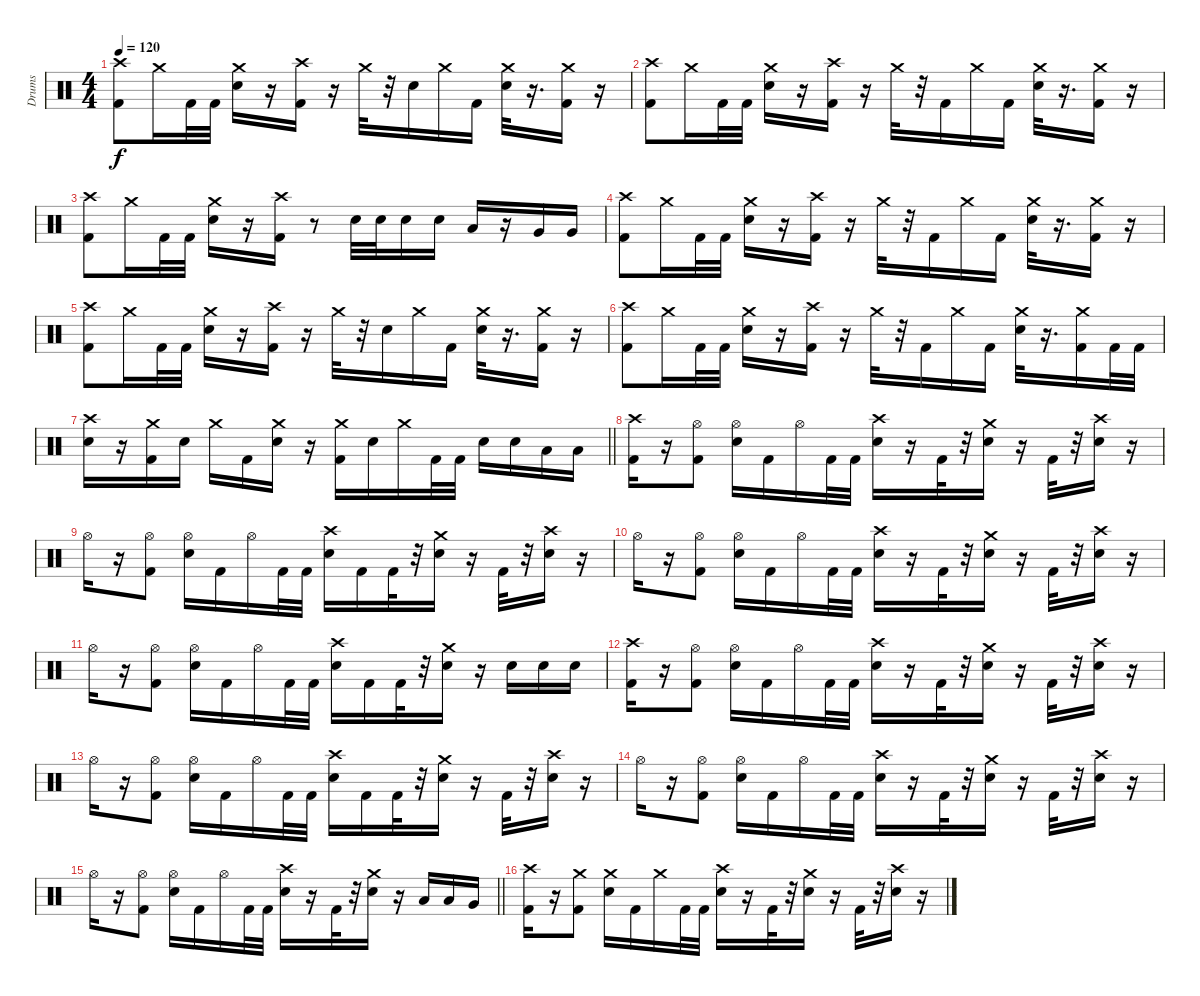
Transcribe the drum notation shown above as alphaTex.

\track ("Drums" "Drums") {instrument percussion}
\staff {score}
\articulation defaults
\ts (4 4)
\tempo 120
\clef neutral
\ks c
("Kick (hit) 2" "Crash high (hit)").8{dy f} "Crash medium (hit)".16 "Kick (hit) 2".32 "Kick (hit) 2".32 ("Snare (hit) 2" "Crash medium (hit)").16 r.16 ("Kick (hit) 2" "Crash high (hit)").16 r.16 "Crash medium (hit)".32 r.32 "Snare (hit) 2".16 "Crash medium (hit)".16 "Kick (hit) 2".16 ("Snare (hit) 2" "Crash medium (hit)").32 r.16{d} ("Kick (hit) 2" "Crash medium (hit)").16 r.16 |
("Kick (hit) 2" "Crash high (hit)").8 "Crash medium (hit)".16 "Kick (hit) 2".32 "Kick (hit) 2".32 ("Snare (hit) 2" "Crash medium (hit)").16 r.16 ("Kick (hit) 2" "Crash high (hit)").16 r.16 "Crash medium (hit)".32 r.32 "Kick (hit) 2".16 "Crash medium (hit)".16 "Kick (hit) 2".16 ("Snare (hit) 2" "Crash medium (hit)").32 r.16{d} ("Kick (hit) 2" "Crash medium (hit)").16 r.16 |
("Kick (hit) 2" "Crash high (hit)").8 "Crash medium (hit)".16 "Kick (hit) 2".32 "Kick (hit) 2".32 ("Snare (hit) 2" "Crash medium (hit)").16 r.16 ("Kick (hit) 2" "Crash high (hit)").16 r.8 "Snare (hit) 2".32 "Snare (hit) 2".32 "Snare (hit) 2".16 "Snare (hit) 2".16 "Low Tom (hit)".16 r.16 "Very Low Tom (hit)".16 "Very Low Tom (hit)".16 |
("Kick (hit) 2" "Crash high (hit)").8 "Crash medium (hit)".16 "Kick (hit) 2".32 "Kick (hit) 2".32 ("Snare (hit) 2" "Crash medium (hit)").16 r.16 ("Kick (hit) 2" "Crash high (hit)").16 r.16 "Crash medium (hit)".32 r.32 "Kick (hit) 2".16 "Crash medium (hit)".16 "Kick (hit) 2".16 ("Snare (hit) 2" "Crash medium (hit)").32 r.16{d} ("Kick (hit) 2" "Crash medium (hit)").16 r.16 |
("Kick (hit) 2" "Crash high (hit)").8 "Crash medium (hit)".16 "Kick (hit) 2".32 "Kick (hit) 2".32 ("Snare (hit) 2" "Crash medium (hit)").16 r.16 ("Kick (hit) 2" "Crash high (hit)").16 r.16 "Crash medium (hit)".32 r.32 "Snare (hit) 2".16 "Crash medium (hit)".16 "Kick (hit) 2".16 ("Snare (hit) 2" "Crash medium (hit)").32 r.16{d} ("Kick (hit) 2" "Crash medium (hit)").16 r.16 |
("Kick (hit) 2" "Crash high (hit)").8 "Crash medium (hit)".16 "Kick (hit) 2".32 "Kick (hit) 2".32 ("Snare (hit) 2" "Crash medium (hit)").16 r.16 ("Kick (hit) 2" "Crash high (hit)").16 r.16 "Crash medium (hit)".32 r.32 "Kick (hit) 2".16 "Crash medium (hit)".16 "Kick (hit) 2".16 ("Snare (hit) 2" "Crash medium (hit)").32 r.16{d} ("Kick (hit) 2" "Crash medium (hit)").16 "Kick (hit) 2".32 "Kick (hit) 2".32 |
\barLineRight lightlight
("Snare (hit) 2" "Crash high (hit)").16 r.16 ("Kick (hit) 2" "Crash medium (hit)").16 "Snare (hit) 2".16 "Crash medium (hit)".16 "Kick (hit) 2".16 ("Snare (hit) 2" "Crash medium (hit)").16 r.16 ("Kick (hit) 2" "Crash medium (hit)").16 "Snare (hit) 2".16 "Crash medium (hit)".16 "Kick (hit) 2".32 "Kick (hit) 2".32 "Snare (hit) 2".16 "Snare (hit) 2".16 "Low Tom (hit)".16 "Low Tom (hit)".16 |
\section ("" " ")
("Kick (hit) 2" "Crash high (hit)").16 r.16 ("Kick (hit) 2" "Hi-Hat (open)").8 ("Snare (hit) 2" "Hi-Hat (open)").16 "Kick (hit) 2".16 "Hi-Hat (open)".16 "Kick (hit) 2".32 "Kick (hit) 2".32 ("Snare (hit) 2" "Crash high (hit)").16 r.16 "Kick (hit) 2".32 r.32 ("Snare (hit) 2" "Crash medium (hit)").16 r.16 "Kick (hit) 2".32 r.32 ("Snare (hit) 2" "Crash high (hit)").16 r.16 |
"Hi-Hat (open)".16 r.16 ("Kick (hit) 2" "Hi-Hat (open)").8 ("Snare (hit) 2" "Hi-Hat (open)").16 "Kick (hit) 2".16 "Hi-Hat (open)".16 "Kick (hit) 2".32 "Kick (hit) 2".32 ("Snare (hit) 2" "Crash high (hit)").16 "Kick (hit) 2".16 "Kick (hit) 2".32 r.32 ("Snare (hit) 2" "Crash medium (hit)").16 r.16 "Kick (hit) 2".32 r.32 ("Snare (hit) 2" "Crash high (hit)").16 r.16 |
"Hi-Hat (open)".16 r.16 ("Kick (hit) 2" "Hi-Hat (open)").8 ("Snare (hit) 2" "Hi-Hat (open)").16 "Kick (hit) 2".16 "Hi-Hat (open)".16 "Kick (hit) 2".32 "Kick (hit) 2".32 ("Snare (hit) 2" "Crash high (hit)").16 r.16 "Kick (hit) 2".32 r.32 ("Snare (hit) 2" "Crash medium (hit)").16 r.16 "Kick (hit) 2".32 r.32 ("Snare (hit) 2" "Crash high (hit)").16 r.16 |
"Hi-Hat (open)".16 r.16 ("Kick (hit) 2" "Hi-Hat (open)").8 ("Snare (hit) 2" "Hi-Hat (open)").16 "Kick (hit) 2".16 "Hi-Hat (open)".16 "Kick (hit) 2".32 "Kick (hit) 2".32 ("Snare (hit) 2" "Crash high (hit)").16 "Kick (hit) 2".16 "Kick (hit) 2".32 r.32 ("Snare (hit) 2" "Crash medium (hit)").16 r.16 "Snare (hit) 2".16 "Snare (hit) 2".16 "Snare (hit) 2".16 |
("Kick (hit) 2" "Crash high (hit)").16 r.16 ("Kick (hit) 2" "Hi-Hat (open)").8 ("Snare (hit) 2" "Hi-Hat (open)").16 "Kick (hit) 2".16 "Hi-Hat (open)".16 "Kick (hit) 2".32 "Kick (hit) 2".32 ("Snare (hit) 2" "Crash high (hit)").16 r.16 "Kick (hit) 2".32 r.32 ("Snare (hit) 2" "Crash medium (hit)").16 r.16 "Kick (hit) 2".32 r.32 ("Snare (hit) 2" "Crash high (hit)").16 r.16 |
"Hi-Hat (open)".16 r.16 ("Kick (hit) 2" "Hi-Hat (open)").8 ("Snare (hit) 2" "Hi-Hat (open)").16 "Kick (hit) 2".16 "Hi-Hat (open)".16 "Kick (hit) 2".32 "Kick (hit) 2".32 ("Snare (hit) 2" "Crash high (hit)").16 "Kick (hit) 2".16 "Kick (hit) 2".32 r.32 ("Snare (hit) 2" "Crash medium (hit)").16 r.16 "Kick (hit) 2".32 r.32 ("Snare (hit) 2" "Crash high (hit)").16 r.16 |
"Hi-Hat (open)".16 r.16 ("Kick (hit) 2" "Hi-Hat (open)").8 ("Snare (hit) 2" "Hi-Hat (open)").16 "Kick (hit) 2".16 "Hi-Hat (open)".16 "Kick (hit) 2".32 "Kick (hit) 2".32 ("Snare (hit) 2" "Crash high (hit)").16 r.16 "Kick (hit) 2".32 r.32 ("Snare (hit) 2" "Crash medium (hit)").16 r.16 "Kick (hit) 2".32 r.32 ("Snare (hit) 2" "Crash high (hit)").16 r.16 |
\barLineRight lightlight "Hi-Hat (open)".16
r.16 ("Kick (hit) 2" "Hi-Hat (open)").8 ("Snare (hit) 2" "Hi-Hat (open)").16 "Kick (hit) 2".16 "Hi-Hat (open)".16 "Kick (hit) 2".32 "Kick (hit) 2".32 ("Snare (hit) 2" "Crash high (hit)").16 r.16 "Kick (hit) 2".32 r.32 ("Snare (hit) 2" "Crash medium (hit)").16 r.16 "Low Tom (hit)".16 "Low Tom (hit)".16 "Very Low Tom (hit)".16 |
\section ("" " ")
("Kick (hit) 2" "Crash high (hit)").16 r.16 ("Kick (hit) 2" "Crash medium (hit)").8 ("Snare (hit) 2" "Crash medium (hit)").16 "Kick (hit) 2".16 "Crash medium (hit)".16 "Kick (hit) 2".32 "Kick (hit) 2".32 ("Snare (hit) 2" "Crash high (hit)").16 r.16 "Kick (hit) 2".32 r.32 ("Snare (hit) 2" "Crash medium (hit)").16 r.16 "Kick (hit) 2".32 r.32 ("Snare (hit) 2" "Crash high (hit)").16 r.16
